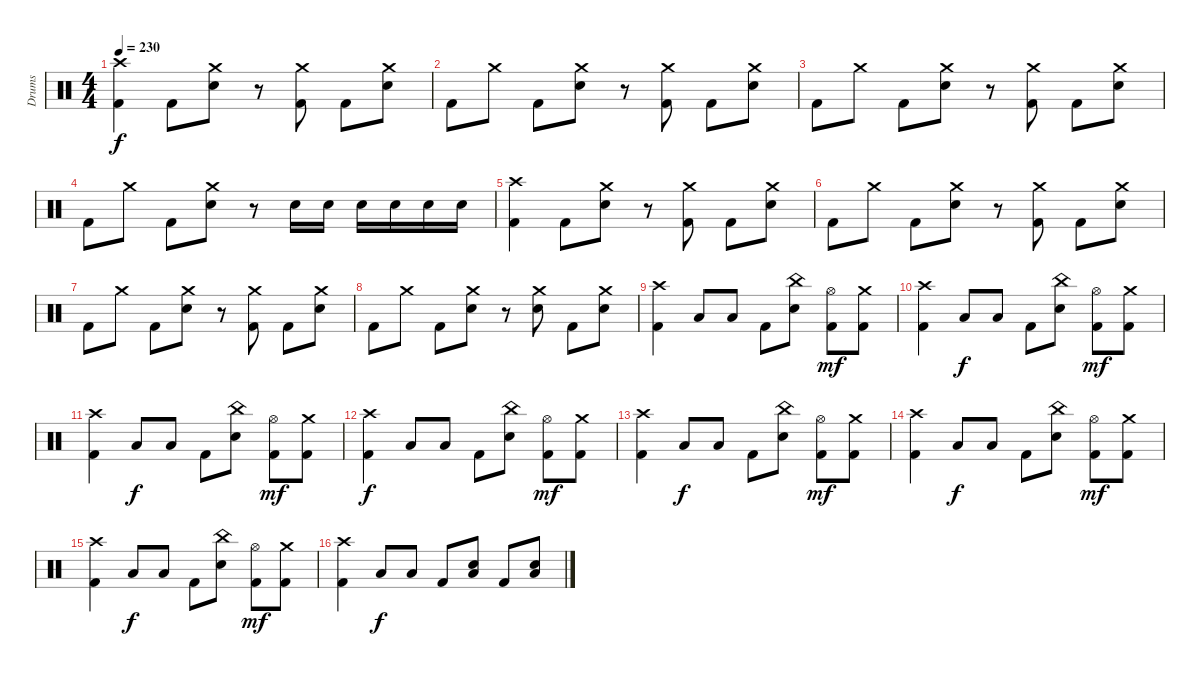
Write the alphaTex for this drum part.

\track ("Drums" "Drums") {instrument percussion}
\staff {score}
\articulation defaults
\ts (4 4)
\tempo 230
\clef neutral
\ks c
("Kick (hit) 2" "Crash high (hit)").4{dy f} "Kick (hit) 2".8 ("Electric Snare (hit)" "Crash medium (hit)").8 r.8 ("Kick (hit) 2" "Crash medium (hit)").8 "Kick (hit) 2".8 ("Electric Snare (hit)" "Crash medium (hit)").8 |
"Kick (hit) 2".8 "Crash medium (hit)".8 "Kick (hit) 2".8 ("Electric Snare (hit)" "Crash medium (hit)").8 r.8 ("Kick (hit) 2" "Crash medium (hit)").8 "Kick (hit) 2".8 ("Electric Snare (hit)" "Crash medium (hit)").8 |
"Kick (hit) 2".8 "Crash medium (hit)".8 "Kick (hit) 2".8 ("Electric Snare (hit)" "Crash medium (hit)").8 r.8 ("Kick (hit) 2" "Crash medium (hit)").8 "Kick (hit) 2".8 ("Electric Snare (hit)" "Crash medium (hit)").8 |
"Kick (hit) 2".8 "Crash medium (hit)".8 "Kick (hit) 2".8 ("Electric Snare (hit)" "Crash medium (hit)").8 r.8 "Electric Snare (hit)".16 "Electric Snare (hit)".16 "Electric Snare (hit)".16 "Electric Snare (hit)".16 "Electric Snare (hit)".16 "Electric Snare (hit)".16 |
("Kick (hit) 2" "Crash high (hit)").4 "Kick (hit) 2".8 ("Electric Snare (hit)" "Crash medium (hit)").8 r.8 ("Kick (hit) 2" "Crash medium (hit)").8 "Kick (hit) 2".8 ("Electric Snare (hit)" "Crash medium (hit)").8 |
"Kick (hit) 2".8 "Crash medium (hit)".8 "Kick (hit) 2".8 ("Electric Snare (hit)" "Crash medium (hit)").8 r.8 ("Kick (hit) 2" "Crash medium (hit)").8 "Kick (hit) 2".8 ("Electric Snare (hit)" "Crash medium (hit)").8 |
"Kick (hit) 2".8 "Crash medium (hit)".8 "Kick (hit) 2".8 ("Electric Snare (hit)" "Crash medium (hit)").8 r.8 ("Kick (hit) 2" "Crash medium (hit)").8 "Kick (hit) 2".8 ("Electric Snare (hit)" "Crash medium (hit)").8 |
"Kick (hit) 2".8 "Crash medium (hit)".8 "Kick (hit) 2".8 ("Electric Snare (hit)" "Crash medium (hit)").8 r.8 ("Electric Snare (hit)" "Crash medium (hit)").8 "Kick (hit) 2".8 ("Electric Snare (hit)" "Crash medium (hit)").8 |
("Kick (hit) 2" "Crash high (hit)").4 "Low Tom (hit)".8 "Low Tom (hit)".8 "Kick (hit) 2".8 ("Electric Snare (hit)" "China (hit)").8 ("Kick (hit) 2" "Hi-Hat (open)").8{dy mf} ("Kick (hit) 2" "Crash medium (hit)").8 |
("Kick (hit) 2" "Crash high (hit)").4 "Low Tom (hit)".8{dy f} "Low Tom (hit)".8 "Kick (hit) 2".8 ("Electric Snare (hit)" "China (hit)").8 ("Kick (hit) 2" "Hi-Hat (open)").8{dy mf} ("Kick (hit) 2" "Crash medium (hit)").8 |
("Kick (hit) 2" "Crash high (hit)").4 "Low Tom (hit)".8{dy f} "Low Tom (hit)".8 "Kick (hit) 2".8 ("Electric Snare (hit)" "China (hit)").8 ("Kick (hit) 2" "Hi-Hat (open)").8{dy mf} ("Kick (hit) 2" "Crash medium (hit)").8 |
("Kick (hit) 2" "Crash high (hit)").4{dy f} "Low Tom (hit)".8 "Low Tom (hit)".8 "Kick (hit) 2".8 ("Electric Snare (hit)" "China (hit)").8 ("Kick (hit) 2" "Hi-Hat (open)").8{dy mf} ("Kick (hit) 2" "Crash medium (hit)").8 |
("Kick (hit) 2" "Crash high (hit)").4 "Low Tom (hit)".8{dy f} "Low Tom (hit)".8 "Kick (hit) 2".8 ("Electric Snare (hit)" "China (hit)").8 ("Kick (hit) 2" "Hi-Hat (open)").8{dy mf} ("Kick (hit) 2" "Crash medium (hit)").8 |
("Kick (hit) 2" "Crash high (hit)").4 "Low Tom (hit)".8{dy f} "Low Tom (hit)".8 "Kick (hit) 2".8 ("Electric Snare (hit)" "China (hit)").8 ("Kick (hit) 2" "Hi-Hat (open)").8{dy mf} ("Kick (hit) 2" "Crash medium (hit)").8 |
("Kick (hit) 2" "Crash high (hit)").4 "Low Tom (hit)".8{dy f} "Low Tom (hit)".8 "Kick (hit) 2".8 ("Electric Snare (hit)" "China (hit)").8 ("Kick (hit) 2" "Hi-Hat (open)").8{dy mf} ("Kick (hit) 2" "Crash medium (hit)").8 |
("Kick (hit) 2" "Crash high (hit)").4 "Low Tom (hit)".8{dy f} "Low Tom (hit)".8 "Kick (hit) 2".8 ("Electric Snare (hit)" "Low Floor Tom (hit)").8 "Kick (hit) 2".8 ("Electric Snare (hit)" "Low Floor Tom (hit)").8
